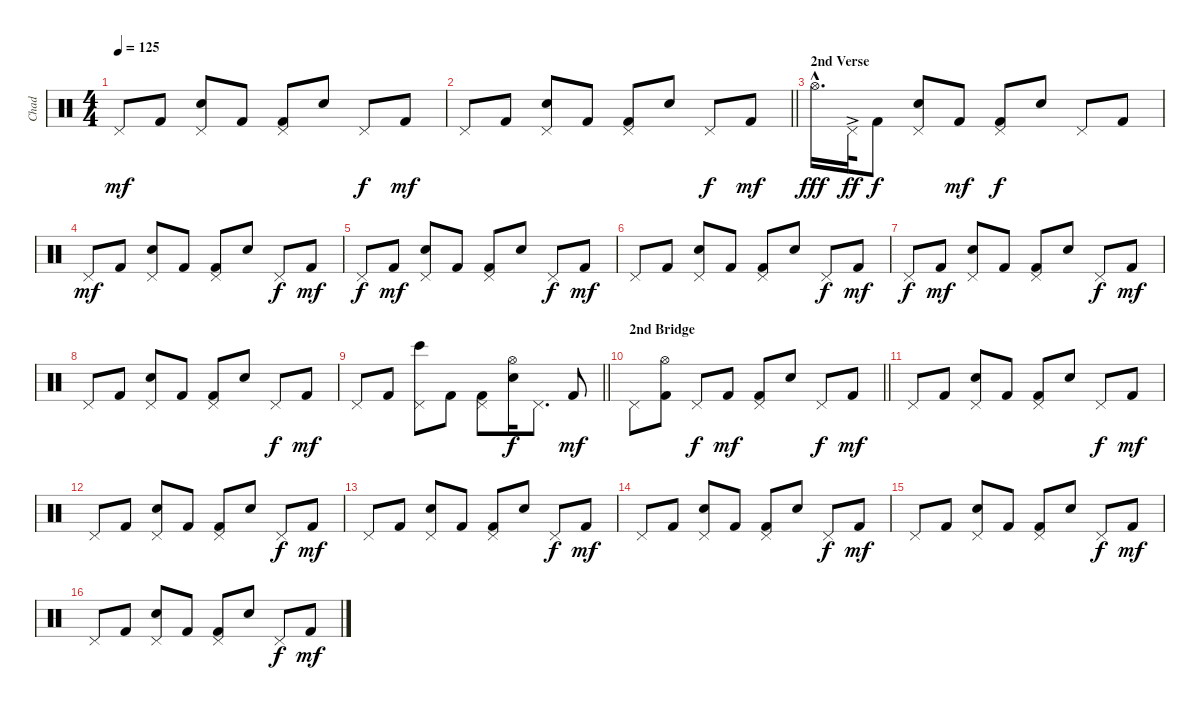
\track ("Chad" "Chad") {instrument percussion}
\staff {score}
\articulation defaults
\ts (4 4)
\tempo 125
\clef neutral
\ks c "Pedal Hi-Hat (hit)".8{dy mf} "Kick (hit) 2".8
("Electric Snare (hit)" "Pedal Hi-Hat (hit)").8 "Kick (hit) 2".8 ("Kick (hit) 2" "Pedal Hi-Hat (hit)").8 "Electric Snare (hit)".8 "Pedal Hi-Hat (hit)".8{dy f} "Kick (hit) 2".8{dy mf} |
\barLineRight lightlight "Pedal Hi-Hat (hit)".8 "Kick (hit) 2".8
("Electric Snare (hit)" "Pedal Hi-Hat (hit)").8 "Kick (hit) 2".8 ("Kick (hit) 2" "Pedal Hi-Hat (hit)").8 "Electric Snare (hit)".8 "Pedal Hi-Hat (hit)".8{dy f} "Kick (hit) 2".8{dy mf} |
\section ("" "2nd Verse")
"Hi-Hat (open)"{hac}.16{d dy fff} "Pedal Hi-Hat (hit)"{ac}.32{dy ff} "Kick (hit) 2".8{dy f} ("Electric Snare (hit)" "Pedal Hi-Hat (hit)").8 "Kick (hit) 2".8{dy mf} ("Kick (hit) 2" "Pedal Hi-Hat (hit)").8{dy f} "Electric Snare (hit)".8 "Pedal Hi-Hat (hit)".8 "Kick (hit) 2".8 |
"Pedal Hi-Hat (hit)".8{dy mf} "Kick (hit) 2".8 ("Electric Snare (hit)" "Pedal Hi-Hat (hit)").8 "Kick (hit) 2".8 ("Kick (hit) 2" "Pedal Hi-Hat (hit)").8 "Electric Snare (hit)".8 "Pedal Hi-Hat (hit)".8{dy f} "Kick (hit) 2".8{dy mf} |
"Pedal Hi-Hat (hit)".8{dy f} "Kick (hit) 2".8{dy mf} ("Electric Snare (hit)" "Pedal Hi-Hat (hit)").8 "Kick (hit) 2".8 ("Kick (hit) 2" "Pedal Hi-Hat (hit)").8 "Electric Snare (hit)".8 "Pedal Hi-Hat (hit)".8{dy f} "Kick (hit) 2".8{dy mf} |
"Pedal Hi-Hat (hit)".8 "Kick (hit) 2".8 ("Electric Snare (hit)" "Pedal Hi-Hat (hit)").8 "Kick (hit) 2".8 ("Kick (hit) 2" "Pedal Hi-Hat (hit)").8 "Electric Snare (hit)".8 "Pedal Hi-Hat (hit)".8{dy f} "Kick (hit) 2".8{dy mf} |
"Pedal Hi-Hat (hit)".8{dy f} "Kick (hit) 2".8{dy mf} ("Electric Snare (hit)" "Pedal Hi-Hat (hit)").8 "Kick (hit) 2".8 ("Kick (hit) 2" "Pedal Hi-Hat (hit)").8 "Electric Snare (hit)".8 "Pedal Hi-Hat (hit)".8{dy f} "Kick (hit) 2".8{dy mf} |
"Pedal Hi-Hat (hit)".8 "Kick (hit) 2".8 ("Electric Snare (hit)" "Pedal Hi-Hat (hit)").8 "Kick (hit) 2".8 ("Kick (hit) 2" "Pedal Hi-Hat (hit)").8 "Electric Snare (hit)".8 "Pedal Hi-Hat (hit)".8{dy f} "Kick (hit) 2".8{dy mf} |
\barLineRight lightlight "Pedal Hi-Hat (hit)".8 "Kick (hit) 2".8
("Bongo High (hit)" "Pedal Hi-Hat (hit)").8 "Kick (hit) 2".8 ("Kick (hit) 2" "Pedal Hi-Hat (hit)").8 ("Electric Snare (hit)" "Hi-Hat (open)").16{dy f} "Pedal Hi-Hat (hit)".8{d} "Kick (hit) 2".8{dy mf} |
\section ("" "2nd Bridge")
\barLineRight lightlight "Pedal Hi-Hat (hit)".8
("Kick (hit) 2" "Hi-Hat (open)").8 "Pedal Hi-Hat (hit)".8{dy f} "Kick (hit) 2".8{dy mf} ("Kick (hit) 2" "Pedal Hi-Hat (hit)").8 "Electric Snare (hit)".8 "Pedal Hi-Hat (hit)".8{dy f} "Kick (hit) 2".8{dy mf} |
"Pedal Hi-Hat (hit)".8 "Kick (hit) 2".8 ("Electric Snare (hit)" "Pedal Hi-Hat (hit)").8 "Kick (hit) 2".8 ("Kick (hit) 2" "Pedal Hi-Hat (hit)").8 "Electric Snare (hit)".8 "Pedal Hi-Hat (hit)".8{dy f} "Kick (hit) 2".8{dy mf} |
"Pedal Hi-Hat (hit)".8 "Kick (hit) 2".8 ("Electric Snare (hit)" "Pedal Hi-Hat (hit)").8 "Kick (hit) 2".8 ("Kick (hit) 2" "Pedal Hi-Hat (hit)").8 "Electric Snare (hit)".8 "Pedal Hi-Hat (hit)".8{dy f} "Kick (hit) 2".8{dy mf} |
"Pedal Hi-Hat (hit)".8 "Kick (hit) 2".8 ("Electric Snare (hit)" "Pedal Hi-Hat (hit)").8 "Kick (hit) 2".8 ("Kick (hit) 2" "Pedal Hi-Hat (hit)").8 "Electric Snare (hit)".8 "Pedal Hi-Hat (hit)".8{dy f} "Kick (hit) 2".8{dy mf} |
"Pedal Hi-Hat (hit)".8 "Kick (hit) 2".8 ("Electric Snare (hit)" "Pedal Hi-Hat (hit)").8 "Kick (hit) 2".8 ("Kick (hit) 2" "Pedal Hi-Hat (hit)").8 "Electric Snare (hit)".8 "Pedal Hi-Hat (hit)".8{dy f} "Kick (hit) 2".8{dy mf} |
"Pedal Hi-Hat (hit)".8 "Kick (hit) 2".8 ("Electric Snare (hit)" "Pedal Hi-Hat (hit)").8 "Kick (hit) 2".8 ("Kick (hit) 2" "Pedal Hi-Hat (hit)").8 "Electric Snare (hit)".8 "Pedal Hi-Hat (hit)".8{dy f} "Kick (hit) 2".8{dy mf} |
"Pedal Hi-Hat (hit)".8 "Kick (hit) 2".8 ("Electric Snare (hit)" "Pedal Hi-Hat (hit)").8 "Kick (hit) 2".8 ("Kick (hit) 2" "Pedal Hi-Hat (hit)").8 "Electric Snare (hit)".8 "Pedal Hi-Hat (hit)".8{dy f} "Kick (hit) 2".8{dy mf}
